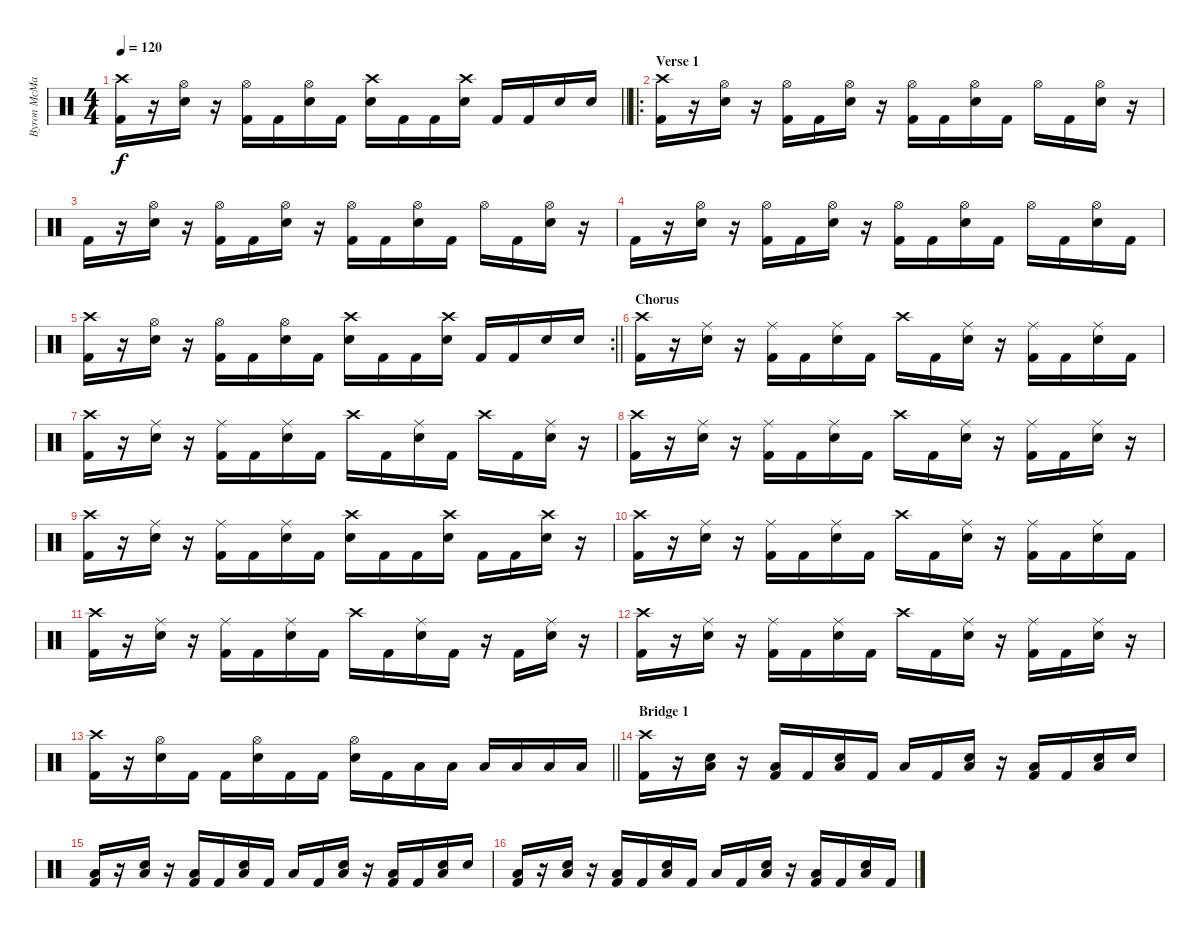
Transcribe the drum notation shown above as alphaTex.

\track ("Byron McMackin" "Byron McMa") {instrument percussion}
\staff {score}
\articulation defaults
\ts (4 4)
\tempo 120
\clef neutral
\barLineRight lightlight
\ks c
("Crash high (hit)" "Kick (hit) 2").16{dy f} r.16 ("Hi-Hat (open)" "Snare (hit) 2").16 r.16 ("Hi-Hat (open)" "Kick (hit) 2").16 "Kick (hit) 2".16 ("Hi-Hat (open)" "Snare (hit) 2").16 "Kick (hit) 2".16 ("Crash high (hit)" "Snare (hit) 2").16 "Kick (hit) 2".16 "Kick (hit) 2".16 ("Crash high (hit)" "Snare (hit) 2").16 "Kick (hit) 2".16 "Kick (hit) 2".16 "Snare (hit) 2".16 "Snare (hit) 2".16 |
\ro
\section ("" "Verse 1")
("Crash high (hit)" "Kick (hit) 2").16 r.16 ("Hi-Hat (open)" "Snare (hit) 2").16 r.16 ("Hi-Hat (open)" "Kick (hit) 2").16 "Kick (hit) 2".16 ("Hi-Hat (open)" "Snare (hit) 2").16 r.16 ("Hi-Hat (open)" "Kick (hit) 2").16 "Kick (hit) 2".16 ("Hi-Hat (open)" "Snare (hit) 2").16 "Kick (hit) 2".16 "Hi-Hat (open)".16 "Kick (hit) 2".16 ("Hi-Hat (open)" "Snare (hit) 2").16 r.16 |
"Kick (hit) 2".16 r.16 ("Hi-Hat (open)" "Snare (hit) 2").16 r.16 ("Hi-Hat (open)" "Kick (hit) 2").16 "Kick (hit) 2".16 ("Hi-Hat (open)" "Snare (hit) 2").16 r.16 ("Hi-Hat (open)" "Kick (hit) 2").16 "Kick (hit) 2".16 ("Hi-Hat (open)" "Snare (hit) 2").16 "Kick (hit) 2".16 "Hi-Hat (open)".16 "Kick (hit) 2".16 ("Hi-Hat (open)" "Snare (hit) 2").16 r.16 |
"Kick (hit) 2".16 r.16 ("Hi-Hat (open)" "Snare (hit) 2").16 r.16 ("Hi-Hat (open)" "Kick (hit) 2").16 "Kick (hit) 2".16 ("Hi-Hat (open)" "Snare (hit) 2").16 r.16 ("Hi-Hat (open)" "Kick (hit) 2").16 "Kick (hit) 2".16 ("Hi-Hat (open)" "Snare (hit) 2").16 "Kick (hit) 2".16 "Hi-Hat (open)".16 "Kick (hit) 2".16 ("Hi-Hat (open)" "Snare (hit) 2").16 "Kick (hit) 2".16 |
\rc 2
\barLineRight lightlight
("Crash high (hit)" "Kick (hit) 2").16 r.16 ("Hi-Hat (open)" "Snare (hit) 2").16 r.16 ("Hi-Hat (open)" "Kick (hit) 2").16 "Kick (hit) 2".16 ("Hi-Hat (open)" "Snare (hit) 2").16 "Kick (hit) 2".16 ("Crash high (hit)" "Snare (hit) 2").16 "Kick (hit) 2".16 "Kick (hit) 2".16 ("Crash high (hit)" "Snare (hit) 2").16 "Kick (hit) 2".16 "Kick (hit) 2".16 "Snare (hit) 2".16 "Snare (hit) 2".16 |
\section ("" "Chorus")
("Crash high (hit)" "Kick (hit) 2").16 r.16 ("Ride (middle)" "Snare (hit) 2").16 r.16 ("Ride (middle)" "Kick (hit) 2").16 "Kick (hit) 2".16 ("Ride (middle)" "Snare (hit) 2").16 "Kick (hit) 2".16 "Crash high (hit)".16 "Kick (hit) 2".16 ("Ride (middle)" "Snare (hit) 2").16 r.16 ("Ride (middle)" "Kick (hit) 2").16 "Kick (hit) 2".16 ("Ride (middle)" "Snare (hit) 2").16 "Kick (hit) 2".16 |
("Crash high (hit)" "Kick (hit) 2").16 r.16 ("Ride (middle)" "Snare (hit) 2").16 r.16 ("Ride (middle)" "Kick (hit) 2").16 "Kick (hit) 2".16 ("Ride (middle)" "Snare (hit) 2").16 "Kick (hit) 2".16 "Crash high (hit)".16 "Kick (hit) 2".16 ("Ride (middle)" "Snare (hit) 2").16 "Kick (hit) 2".16 "Crash high (hit)".16 "Kick (hit) 2".16 ("Ride (middle)" "Snare (hit) 2").16 r.16 |
("Crash high (hit)" "Kick (hit) 2").16 r.16 ("Ride (middle)" "Snare (hit) 2").16 r.16 ("Ride (middle)" "Kick (hit) 2").16 "Kick (hit) 2".16 ("Ride (middle)" "Snare (hit) 2").16 "Kick (hit) 2".16 "Crash high (hit)".16 "Kick (hit) 2".16 ("Ride (middle)" "Snare (hit) 2").16 r.16 ("Ride (middle)" "Kick (hit) 2").16 "Kick (hit) 2".16 ("Ride (middle)" "Snare (hit) 2").16 r.16 |
("Crash high (hit)" "Kick (hit) 2").16 r.16 ("Ride (middle)" "Snare (hit) 2").16 r.16 ("Ride (middle)" "Kick (hit) 2").16 "Kick (hit) 2".16 ("Ride (middle)" "Snare (hit) 2").16 "Kick (hit) 2".16 ("Crash high (hit)" "Snare (hit) 2").16 "Kick (hit) 2".16 "Kick (hit) 2".16 ("Crash high (hit)" "Snare (hit) 2").16 "Kick (hit) 2".16 "Kick (hit) 2".16 ("Crash high (hit)" "Snare (hit) 2").16 r.16 |
("Crash high (hit)" "Kick (hit) 2").16 r.16 ("Ride (middle)" "Snare (hit) 2").16 r.16 ("Ride (middle)" "Kick (hit) 2").16 "Kick (hit) 2".16 ("Ride (middle)" "Snare (hit) 2").16 "Kick (hit) 2".16 "Crash high (hit)".16 "Kick (hit) 2".16 ("Ride (middle)" "Snare (hit) 2").16 r.16 ("Ride (middle)" "Kick (hit) 2").16 "Kick (hit) 2".16 ("Ride (middle)" "Snare (hit) 2").16 "Kick (hit) 2".16 |
("Crash high (hit)" "Kick (hit) 2").16 r.16 ("Ride (middle)" "Snare (hit) 2").16 r.16 ("Ride (middle)" "Kick (hit) 2").16 "Kick (hit) 2".16 ("Ride (middle)" "Snare (hit) 2").16 "Kick (hit) 2".16 "Crash high (hit)".16 "Kick (hit) 2".16 ("Ride (middle)" "Snare (hit) 2").16 "Kick (hit) 2".16 r.16 "Kick (hit) 2".16 ("Ride (middle)" "Snare (hit) 2").16 r.16 |
("Crash high (hit)" "Kick (hit) 2").16 r.16 ("Ride (middle)" "Snare (hit) 2").16 r.16 ("Ride (middle)" "Kick (hit) 2").16 "Kick (hit) 2".16 ("Ride (middle)" "Snare (hit) 2").16 "Kick (hit) 2".16 "Crash high (hit)".16 "Kick (hit) 2".16 ("Ride (middle)" "Snare (hit) 2").16 r.16 ("Ride (middle)" "Kick (hit) 2").16 "Kick (hit) 2".16 ("Ride (middle)" "Snare (hit) 2").16 r.16 |
\barLineRight lightlight
("Crash high (hit)" "Kick (hit) 2").16 r.16 ("Hi-Hat (open)" "Snare (hit) 2").16 "Kick (hit) 2".16 "Kick (hit) 2".16 ("Hi-Hat (open)" "Snare (hit) 2").16 "Kick (hit) 2".16 "Kick (hit) 2".16 ("Hi-Hat (open)" "Snare (hit) 2").16 "Kick (hit) 2".16 "Low Floor Tom (hit)".16 "Low Floor Tom (hit)".16 "Low Floor Tom (hit)".16 "Low Floor Tom (hit)".16 "Low Floor Tom (hit)".16 "Low Floor Tom (hit)".16 |
\section ("" "Bridge 1")
("Crash high (hit)" "Kick (hit) 2").16 r.16 ("Low Floor Tom (hit)" "Snare (hit) 2").16 r.16 ("Low Floor Tom (hit)" "Kick (hit) 2").16 "Kick (hit) 2".16 ("Low Floor Tom (hit)" "Snare (hit) 2").16 "Kick (hit) 2".16 "Low Floor Tom (hit)".16 "Kick (hit) 2".16 ("Low Floor Tom (hit)" "Snare (hit) 2").16 r.16 ("Low Floor Tom (hit)" "Kick (hit) 2").16 "Kick (hit) 2".16 ("Low Floor Tom (hit)" "Snare (hit) 2").16 "Snare (hit) 2".16 |
("Low Floor Tom (hit)" "Kick (hit) 2").16 r.16 ("Low Floor Tom (hit)" "Snare (hit) 2").16 r.16 ("Low Floor Tom (hit)" "Kick (hit) 2").16 "Kick (hit) 2".16 ("Low Floor Tom (hit)" "Snare (hit) 2").16 "Kick (hit) 2".16 "Low Floor Tom (hit)".16 "Kick (hit) 2".16 ("Low Floor Tom (hit)" "Snare (hit) 2").16 r.16 ("Low Floor Tom (hit)" "Kick (hit) 2").16 "Kick (hit) 2".16 ("Low Floor Tom (hit)" "Snare (hit) 2").16 "Snare (hit) 2".16 |
("Low Floor Tom (hit)" "Kick (hit) 2").16 r.16 ("Low Floor Tom (hit)" "Snare (hit) 2").16 r.16 ("Low Floor Tom (hit)" "Kick (hit) 2").16 "Kick (hit) 2".16 ("Low Floor Tom (hit)" "Snare (hit) 2").16 "Kick (hit) 2".16 "Low Floor Tom (hit)".16 "Kick (hit) 2".16 ("Low Floor Tom (hit)" "Snare (hit) 2").16 r.16 ("Low Floor Tom (hit)" "Kick (hit) 2").16 "Kick (hit) 2".16 ("Low Floor Tom (hit)" "Snare (hit) 2").16 "Kick (hit) 2".16
